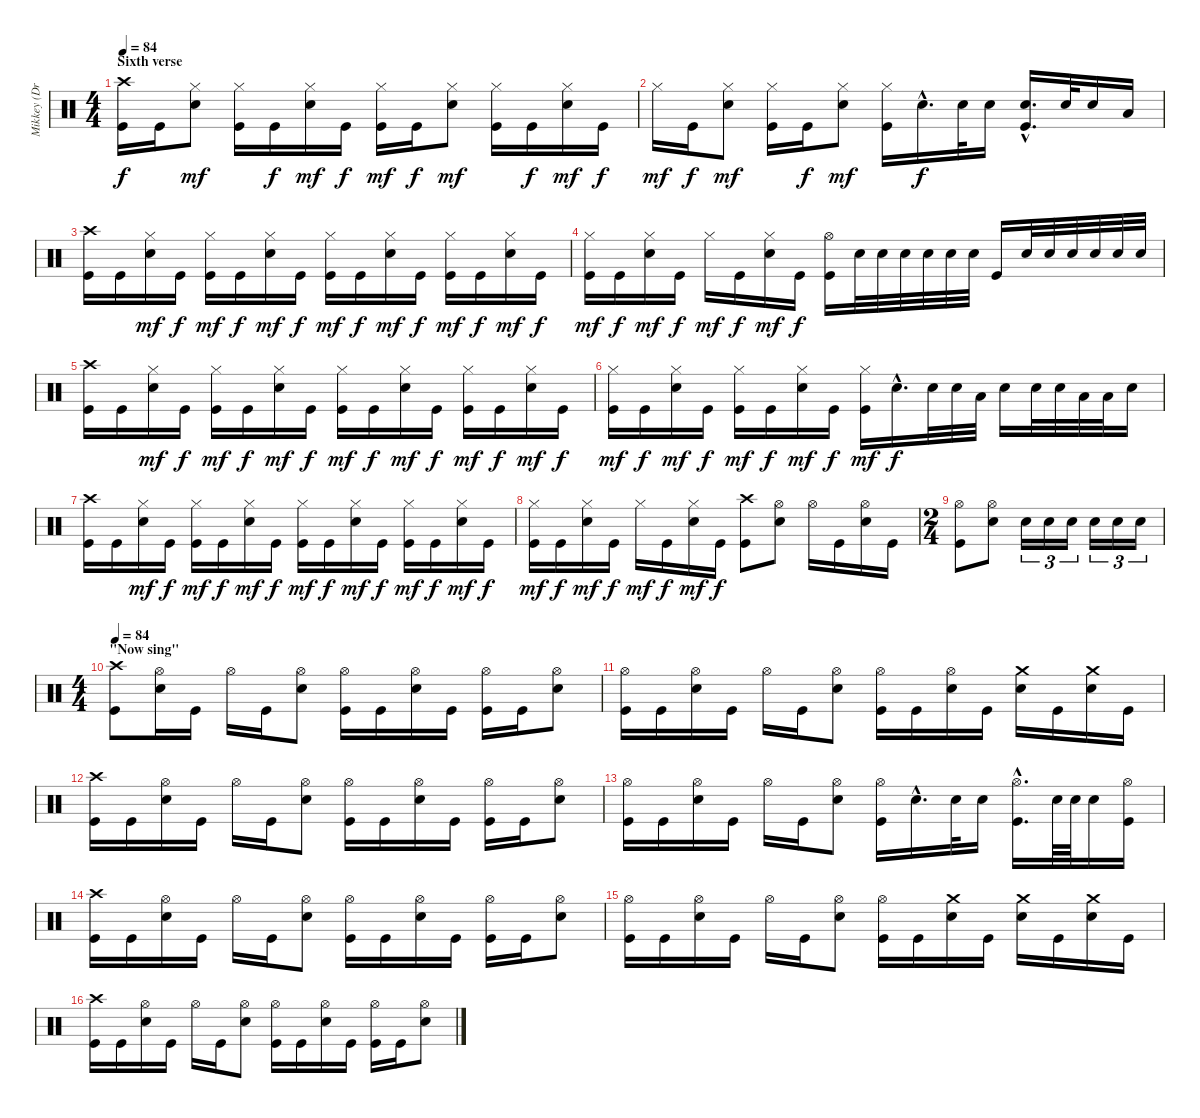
\track ("Mikkey (Drums)" "Mikkey (Dr") {instrument percussion}
\staff {score}
\articulation defaults
\ts (4 4)
\section ("" "Sixth verse")
\tempo 84
\clef neutral
\ks c
("Crash high (hit)" "Kick (hit)").16{dy f} "Kick (hit)".16 ("Hi-Hat (closed)" "Electric Snare (hit)").8{dy mf} ("Hi-Hat (closed)" "Kick (hit)").16 "Kick (hit)".16{dy f} ("Hi-Hat (closed)" "Electric Snare (hit)").16{dy mf} "Kick (hit)".16{dy f} ("Hi-Hat (closed)" "Kick (hit)").16{dy mf} "Kick (hit)".16{dy f} ("Hi-Hat (closed)" "Electric Snare (hit)").8{dy mf} ("Hi-Hat (closed)" "Kick (hit)").16 "Kick (hit)".16{dy f} ("Hi-Hat (closed)" "Electric Snare (hit)").16{dy mf} "Kick (hit)".16{dy f} |
"Hi-Hat (closed)".16{dy mf} "Kick (hit)".16{dy f} ("Hi-Hat (closed)" "Electric Snare (hit)").8{dy mf} ("Hi-Hat (closed)" "Kick (hit)").16 "Kick (hit)".16{dy f} ("Hi-Hat (closed)" "Electric Snare (hit)").8{dy mf} ("Hi-Hat (closed)" "Kick (hit)").16 "Electric Snare (hit)"{hac}.16{d dy f} "Electric Snare (hit)".32 "Electric Snare (hit)".16 ("Electric Snare (hit)"{hac} "Kick (hit)"{hac}).16{d} "Electric Snare (hit)".32 "Electric Snare (hit)".16 "Low Tom (hit)".16 |
("Crash high (hit)" "Kick (hit)").16 "Kick (hit)".16 ("Hi-Hat (closed)" "Electric Snare (hit)").16{dy mf} "Kick (hit)".16{dy f} ("Hi-Hat (closed)" "Kick (hit)").16{dy mf} "Kick (hit)".16{dy f} ("Hi-Hat (closed)" "Electric Snare (hit)").16{dy mf} "Kick (hit)".16{dy f} ("Hi-Hat (closed)" "Kick (hit)").16{dy mf} "Kick (hit)".16{dy f} ("Hi-Hat (closed)" "Electric Snare (hit)").16{dy mf} "Kick (hit)".16{dy f} ("Hi-Hat (closed)" "Kick (hit)").16{dy mf} "Kick (hit)".16{dy f} ("Hi-Hat (closed)" "Electric Snare (hit)").16{dy mf} "Kick (hit)".16{dy f} |
("Hi-Hat (closed)" "Kick (hit)").16{dy mf} "Kick (hit)".16{dy f} ("Hi-Hat (closed)" "Electric Snare (hit)").16{dy mf} "Kick (hit)".16{dy f} "Hi-Hat (closed)".16{dy mf} "Kick (hit)".16{dy f} ("Hi-Hat (closed)" "Electric Snare (hit)").16{dy mf} "Kick (hit)".16{dy f} ("Hi-Hat (open)" "Kick (hit)").16 "Electric Snare (hit)".32 "Electric Snare (hit)".32 "Electric Snare (hit)".32 "Electric Snare (hit)".32 "Electric Snare (hit)".32 "Electric Snare (hit)".32 "Kick (hit)".16 "Electric Snare (hit)".32 "Electric Snare (hit)".32 "Electric Snare (hit)".32 "Electric Snare (hit)".32 "Electric Snare (hit)".32 "Electric Snare (hit)".32 |
("Crash high (hit)" "Kick (hit)").16 "Kick (hit)".16 ("Hi-Hat (closed)" "Electric Snare (hit)").16{dy mf} "Kick (hit)".16{dy f} ("Hi-Hat (closed)" "Kick (hit)").16{dy mf} "Kick (hit)".16{dy f} ("Hi-Hat (closed)" "Electric Snare (hit)").16{dy mf} "Kick (hit)".16{dy f} ("Hi-Hat (closed)" "Kick (hit)").16{dy mf} "Kick (hit)".16{dy f} ("Hi-Hat (closed)" "Electric Snare (hit)").16{dy mf} "Kick (hit)".16{dy f} ("Hi-Hat (closed)" "Kick (hit)").16{dy mf} "Kick (hit)".16{dy f} ("Hi-Hat (closed)" "Electric Snare (hit)").16{dy mf} "Kick (hit)".16{dy f} |
("Hi-Hat (closed)" "Kick (hit)").16{dy mf} "Kick (hit)".16{dy f} ("Hi-Hat (closed)" "Electric Snare (hit)").16{dy mf} "Kick (hit)".16{dy f} ("Hi-Hat (closed)" "Kick (hit)").16{dy mf} "Kick (hit)".16{dy f} ("Hi-Hat (closed)" "Electric Snare (hit)").16{dy mf} "Kick (hit)".16{dy f} ("Hi-Hat (closed)" "Kick (hit)").16{dy mf} "Electric Snare (hit)"{hac}.16{d dy f} "Electric Snare (hit)".32 "Electric Snare (hit)".32 "Low Tom (hit)".32 "Electric Snare (hit)".16 "Electric Snare (hit)".32 "Electric Snare (hit)".32 "Low Tom (hit)".32 "Low Tom (hit)".32 "Electric Snare (hit)".16 |
("Crash high (hit)" "Kick (hit)").16 "Kick (hit)".16 ("Hi-Hat (closed)" "Electric Snare (hit)").16{dy mf} "Kick (hit)".16{dy f} ("Hi-Hat (closed)" "Kick (hit)").16{dy mf} "Kick (hit)".16{dy f} ("Hi-Hat (closed)" "Electric Snare (hit)").16{dy mf} "Kick (hit)".16{dy f} ("Hi-Hat (closed)" "Kick (hit)").16{dy mf} "Kick (hit)".16{dy f} ("Hi-Hat (closed)" "Electric Snare (hit)").16{dy mf} "Kick (hit)".16{dy f} ("Hi-Hat (closed)" "Kick (hit)").16{dy mf} "Kick (hit)".16{dy f} ("Hi-Hat (closed)" "Electric Snare (hit)").16{dy mf} "Kick (hit)".16{dy f} |
("Hi-Hat (closed)" "Kick (hit)").16{dy mf} "Kick (hit)".16{dy f} ("Hi-Hat (closed)" "Electric Snare (hit)").16{dy mf} "Kick (hit)".16{dy f} "Hi-Hat (closed)".16{dy mf} "Kick (hit)".16{dy f} ("Hi-Hat (closed)" "Electric Snare (hit)").16{dy mf} "Kick (hit)".16{dy f} ("Crash high (hit)" "Kick (hit)").8 ("Hi-Hat (open)" "Electric Snare (hit)").8 "Hi-Hat (open)".16 "Kick (hit)".16 ("Hi-Hat (open)" "Electric Snare (hit)").16 "Kick (hit)".16 |
\ts (2 4)
("Hi-Hat (open)" "Kick (hit)").8 ("Hi-Hat (open)" "Electric Snare (hit)").8 "Electric Snare (hit)".16{tu (3 2)} "Electric Snare (hit)".16{tu (3 2)} "Electric Snare (hit)".16{tu (3 2)} "Electric Snare (hit)".16{tu (3 2)} "Electric Snare (hit)".16{tu (3 2)} "Electric Snare (hit)".16{tu (3 2)} |
\ts (4 4)
\section ("" "\"Now sing\"")
\tempo 84
("Crash high (hit)" "Kick (hit)").8 ("Hi-Hat (open)" "Electric Snare (hit)").16 "Kick (hit)".16 "Hi-Hat (open)".16 "Kick (hit)".16 ("Hi-Hat (open)" "Electric Snare (hit)").8 ("Hi-Hat (open)" "Kick (hit)").16 "Kick (hit)".16 ("Hi-Hat (open)" "Electric Snare (hit)").16 "Kick (hit)".16 ("Hi-Hat (open)" "Kick (hit)").16 "Kick (hit)".16 ("Hi-Hat (open)" "Electric Snare (hit)").8 |
("Hi-Hat (open)" "Kick (hit)").16 "Kick (hit)".16 ("Hi-Hat (open)" "Electric Snare (hit)").16 "Kick (hit)".16 "Hi-Hat (open)".16 "Kick (hit)".16 ("Hi-Hat (open)" "Electric Snare (hit)").8 ("Hi-Hat (open)" "Kick (hit)").16 "Kick (hit)".16 ("Hi-Hat (open)" "Electric Snare (hit)").16 "Kick (hit)".16 ("Crash medium (hit)" "Electric Snare (hit)").16 "Kick (hit)".16 ("Crash medium (hit)" "Electric Snare (hit)").16 "Kick (hit)".16 |
("Crash high (hit)" "Kick (hit)").16 "Kick (hit)".16 ("Hi-Hat (open)" "Electric Snare (hit)").16 "Kick (hit)".16 "Hi-Hat (open)".16 "Kick (hit)".16 ("Hi-Hat (open)" "Electric Snare (hit)").8 ("Hi-Hat (open)" "Kick (hit)").16 "Kick (hit)".16 ("Hi-Hat (open)" "Electric Snare (hit)").16 "Kick (hit)".16 ("Hi-Hat (open)" "Kick (hit)").16 "Kick (hit)".16 ("Hi-Hat (open)" "Electric Snare (hit)").8 |
("Hi-Hat (open)" "Kick (hit)").16 "Kick (hit)".16 ("Hi-Hat (open)" "Electric Snare (hit)").16 "Kick (hit)".16 "Hi-Hat (open)".16 "Kick (hit)".16 ("Hi-Hat (open)" "Electric Snare (hit)").8 ("Hi-Hat (open)" "Kick (hit)").16 "Electric Snare (hit)"{hac}.16{d} "Electric Snare (hit)".32 "Electric Snare (hit)".16 ("Hi-Hat (open)"{hac} "Kick (hit)"{hac}).16{d} "Electric Snare (hit)".64 "Electric Snare (hit)".64 "Electric Snare (hit)".16 ("Hi-Hat (open)" "Kick (hit)").16 |
("Crash high (hit)" "Kick (hit)").16 "Kick (hit)".16 ("Hi-Hat (open)" "Electric Snare (hit)").16 "Kick (hit)".16 "Hi-Hat (open)".16 "Kick (hit)".16 ("Hi-Hat (open)" "Electric Snare (hit)").8 ("Hi-Hat (open)" "Kick (hit)").16 "Kick (hit)".16 ("Hi-Hat (open)" "Electric Snare (hit)").16 "Kick (hit)".16 ("Hi-Hat (open)" "Kick (hit)").16 "Kick (hit)".16 ("Hi-Hat (open)" "Electric Snare (hit)").8 |
("Hi-Hat (open)" "Kick (hit)").16 "Kick (hit)".16 ("Hi-Hat (open)" "Electric Snare (hit)").16 "Kick (hit)".16 "Hi-Hat (open)".16 "Kick (hit)".16 ("Hi-Hat (open)" "Electric Snare (hit)").8 ("Hi-Hat (open)" "Kick (hit)").16 "Kick (hit)".16 ("Crash medium (hit)" "Electric Snare (hit)").16 "Kick (hit)".16 ("Crash medium (hit)" "Electric Snare (hit)").16 "Kick (hit)".16 ("Crash medium (hit)" "Electric Snare (hit)").16 "Kick (hit)".16 |
("Crash high (hit)" "Kick (hit)").16 "Kick (hit)".16 ("Hi-Hat (open)" "Electric Snare (hit)").16 "Kick (hit)".16 "Hi-Hat (open)".16 "Kick (hit)".16 ("Hi-Hat (open)" "Electric Snare (hit)").8 ("Hi-Hat (open)" "Kick (hit)").16 "Kick (hit)".16 ("Hi-Hat (open)" "Electric Snare (hit)").16 "Kick (hit)".16 ("Hi-Hat (open)" "Kick (hit)").16 "Kick (hit)".16 ("Hi-Hat (open)" "Electric Snare (hit)").8
